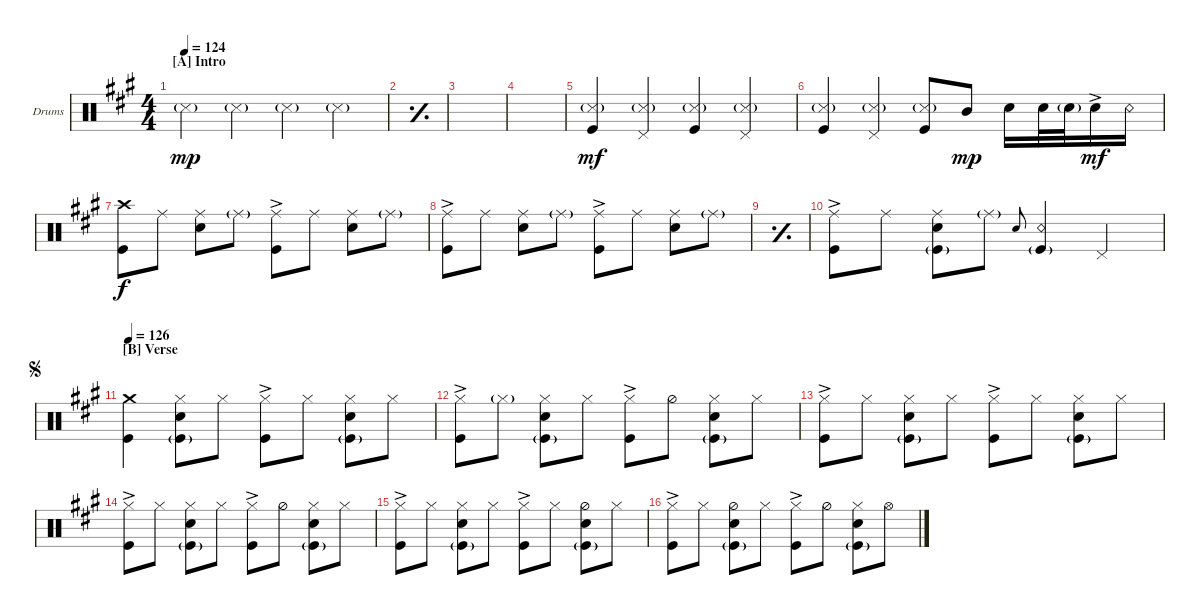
\bracketExtendMode groupsimilarinstruments
\firstSystemTrackNameOrientation horizontal
\otherSystemsTrackNameOrientation horizontal
\track ("Drumkit" "Drums") {instrument percussion}
\staff {score}
\articulation defaults
\ts (4 4)
\section ("A" "Intro")
\tempo 124
\clef neutral
\ks a "Snare (side stick) 3"{g}.4{dy mp} "Snare (side stick) 3"{g}.4 "Snare (side stick) 3"{g}.4 "Snare (side stick) 3"{g}.4
|
\simile simple
|
|
|
("Kick (hit)" "Snare (side stick) 3"{g}).4{dy mf} ("Pedal Hi-Hat (hit)" "Snare (side stick) 3"{g}).4 ("Kick (hit)" "Snare (side stick) 3"{g}).4 ("Pedal Hi-Hat (hit)" "Snare (side stick) 3"{g}).4 |
("Kick (hit)" "Snare (side stick) 3"{g}).4 ("Pedal Hi-Hat (hit)" "Snare (side stick) 3"{g}).4 ("Kick (hit)" "Snare (side stick) 3"{g}).8 "Mid Tom (hit)".8{dy mp} "Snare (hit) 2".16 "Snare (hit) 2".32 "Snare (hit) 2"{g}.32 "Snare (hit) 2"{ac}.16{dy mf} "Snare (rim shot)".16 |
("Crash high (hit)" "Kick (hit)").8{dy f} "Ride (middle)".8 ("Ride (middle)" "Snare (hit) 2").8 "Ride (middle)"{g}.8 ("Ride (middle)"{ac} "Kick (hit)").8 "Ride (middle)".8 ("Ride (middle)" "Snare (hit) 2").8 "Ride (middle)"{g}.8 |
("Ride (middle)"{ac} "Kick (hit)").8 "Ride (middle)".8 ("Ride (middle)" "Snare (hit) 2").8 "Ride (middle)"{g}.8 ("Ride (middle)"{ac} "Kick (hit)").8 "Ride (middle)".8 ("Ride (middle)" "Snare (hit) 2").8 "Ride (middle)"{g}.8 |
\simile simple
|
\simile none
("Kick (hit)" "Ride (middle)"{ac}).8 "Ride (middle)".8 ("Ride (middle)" "Snare (hit) 2" "Kick (hit)"{g}).8 "Ride (middle)"{g}.8 "Snare (hit) 2".8{gr onbeat} ("Snare (rim shot)" "Kick (hit)"{g}).4 "Pedal Hi-Hat (hit)".4 |
\section ("B" "Verse")
\jump segno
\tempo 126
("Kick (hit)" "Crash medium (hit)").4 ("Snare (hit) 2" "Kick (hit)"{g} "Hi-Hat (closed)").8 "Hi-Hat (closed)".8 ("Kick (hit)" "Hi-Hat (closed)"{ac}).8 "Hi-Hat (closed)".8 ("Snare (hit) 2" "Kick (hit)"{g} "Hi-Hat (closed)").8 "Hi-Hat (closed)".8 |
("Kick (hit)" "Hi-Hat (closed)"{ac}).8 "Hi-Hat (closed)"{g}.8 ("Snare (hit) 2" "Kick (hit)"{g} "Hi-Hat (closed)").8 "Hi-Hat (closed)".8 ("Kick (hit)" "Hi-Hat (closed)"{ac}).8 "Hi-Hat (half)".8 ("Snare (hit) 2" "Kick (hit)"{g} "Hi-Hat (closed)").8 "Hi-Hat (closed)".8 |
("Kick (hit)" "Hi-Hat (closed)"{ac}).8 "Hi-Hat (closed)".8 ("Snare (hit) 2" "Kick (hit)"{g} "Hi-Hat (closed)").8 "Hi-Hat (closed)".8 ("Kick (hit)" "Hi-Hat (closed)"{ac}).8 "Hi-Hat (closed)".8 ("Snare (hit) 2" "Kick (hit)"{g} "Hi-Hat (closed)").8 "Hi-Hat (closed)".8 |
("Kick (hit)" "Hi-Hat (closed)"{ac}).8 "Hi-Hat (closed)".8 ("Snare (hit) 2" "Kick (hit)"{g} "Hi-Hat (closed)").8 "Hi-Hat (closed)".8 ("Kick (hit)" "Hi-Hat (closed)"{ac}).8 "Hi-Hat (half)".8 ("Snare (hit) 2" "Kick (hit)"{g} "Hi-Hat (closed)").8 "Hi-Hat (closed)".8 |
("Kick (hit)" "Hi-Hat (closed)"{ac}).8 "Hi-Hat (closed)".8 ("Snare (hit) 2" "Kick (hit)"{g} "Hi-Hat (closed)").8 "Hi-Hat (closed)".8 ("Kick (hit)" "Hi-Hat (closed)"{ac}).8 "Hi-Hat (closed)".8 ("Snare (hit) 2" "Kick (hit)"{g} "Hi-Hat (half)").8 "Hi-Hat (closed)".8 |
("Kick (hit)" "Hi-Hat (closed)"{ac}).8 "Hi-Hat (closed)".8 ("Snare (hit) 2" "Kick (hit)"{g} "Hi-Hat (half)").8 "Hi-Hat (closed)".8 ("Kick (hit)" "Hi-Hat (closed)"{ac}).8 "Hi-Hat (half)".8 ("Snare (hit) 2" "Kick (hit)"{g} "Hi-Hat (closed)").8 "Hi-Hat (open)".8
